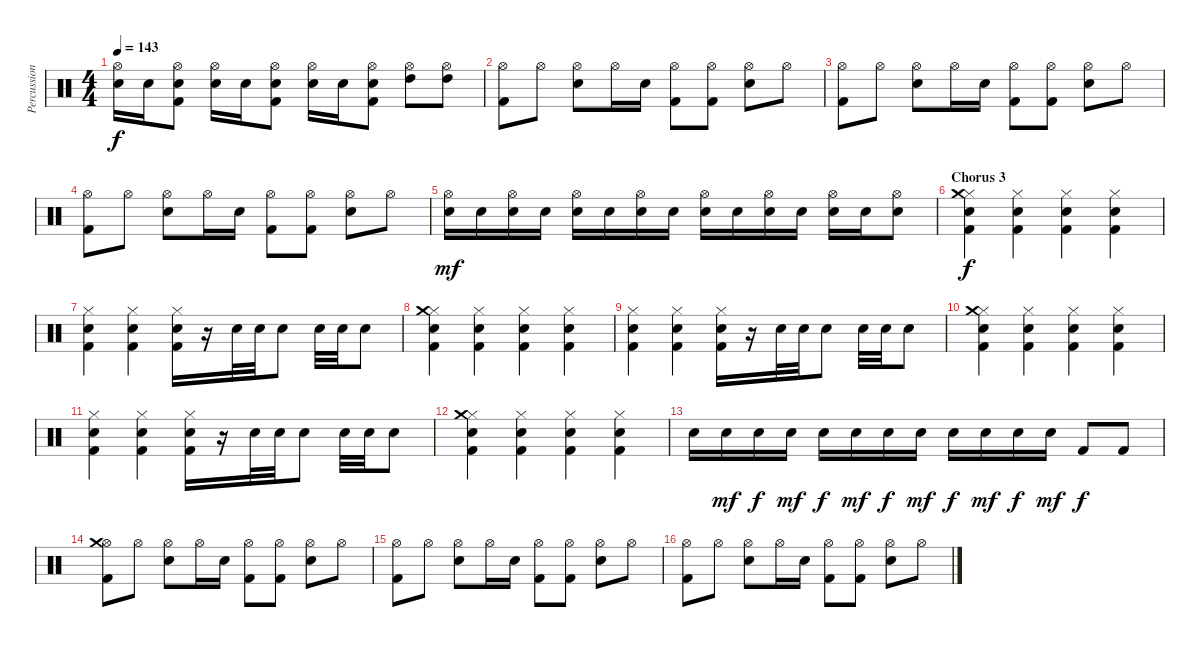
\track ("Percussion" "Percussion") {instrument percussion}
\staff {score}
\articulation defaults
\ts (4 4)
\tempo 143
\clef neutral
\ks c
("Hi-Hat (open)" "Electric Snare (hit)").16{dy f} "Electric Snare (hit)".16 ("Hi-Hat (open)" "Electric Snare (hit)" "Kick (hit) 2").8 ("Hi-Hat (open)" "Electric Snare (hit)").16 "Electric Snare (hit)".16 ("Hi-Hat (open)" "Electric Snare (hit)" "Kick (hit) 2").8 ("Hi-Hat (open)" "Electric Snare (hit)").16 "Electric Snare (hit)".16 ("Hi-Hat (open)" "Electric Snare (hit)" "Kick (hit) 2").8 ("Hi-Hat (open)" "High Tom (hit)").8 ("Hi-Hat (open)" "High Tom (hit)").8 |
("Hi-Hat (open)" "Kick (hit) 2").8 "Hi-Hat (open)".8 ("Hi-Hat (open)" "Electric Snare (hit)").8 "Hi-Hat (open)".16 "Electric Snare (hit)".16 ("Hi-Hat (open)" "Kick (hit) 2").8 ("Hi-Hat (open)" "Kick (hit) 2").8 ("Hi-Hat (open)" "Electric Snare (hit)").8 "Hi-Hat (open)".8 |
("Hi-Hat (open)" "Kick (hit) 2").8 "Hi-Hat (open)".8 ("Hi-Hat (open)" "Electric Snare (hit)").8 "Hi-Hat (open)".16 "Electric Snare (hit)".16 ("Hi-Hat (open)" "Kick (hit) 2").8 ("Hi-Hat (open)" "Kick (hit) 2").8 ("Hi-Hat (open)" "Electric Snare (hit)").8 "Hi-Hat (open)".8 |
("Hi-Hat (open)" "Kick (hit) 2").8 "Hi-Hat (open)".8 ("Hi-Hat (open)" "Electric Snare (hit)").8 "Hi-Hat (open)".16 "Electric Snare (hit)".16 ("Hi-Hat (open)" "Kick (hit) 2").8 ("Hi-Hat (open)" "Kick (hit) 2").8 ("Hi-Hat (open)" "Electric Snare (hit)").8 "Hi-Hat (open)".8 |
("Hi-Hat (open)" "Electric Snare (hit)").16{dy mf} "Electric Snare (hit)".16 ("Hi-Hat (open)" "Electric Snare (hit)").16 "Electric Snare (hit)".16 ("Hi-Hat (open)" "Electric Snare (hit)").16 "Electric Snare (hit)".16 ("Hi-Hat (open)" "Electric Snare (hit)").16 "Electric Snare (hit)".16 ("Hi-Hat (open)" "Electric Snare (hit)").16 "Electric Snare (hit)".16 ("Hi-Hat (open)" "Electric Snare (hit)").16 "Electric Snare (hit)".16 ("Hi-Hat (open)" "Electric Snare (hit)").16 "Electric Snare (hit)".16 ("Hi-Hat (open)" "Electric Snare (hit)").8 |
\section ("" "Chorus 3")
("Hi-Hat (closed)" "Crash medium (hit)" "Electric Snare (hit)" "Kick (hit) 2").4{dy f} ("Hi-Hat (closed)" "Electric Snare (hit)" "Kick (hit) 2").4 ("Hi-Hat (closed)" "Electric Snare (hit)" "Kick (hit) 2").4 ("Hi-Hat (closed)" "Electric Snare (hit)" "Kick (hit) 2").4 |
("Hi-Hat (closed)" "Electric Snare (hit)" "Kick (hit) 2").4 ("Hi-Hat (closed)" "Electric Snare (hit)" "Kick (hit) 2").4 ("Hi-Hat (closed)" "Electric Snare (hit)" "Kick (hit) 2").16 r.16 "Electric Snare (hit)".32 "Electric Snare (hit)".32 "Electric Snare (hit)".8 "Electric Snare (hit)".32 "Electric Snare (hit)".32 "Electric Snare (hit)".8 |
("Hi-Hat (closed)" "Crash medium (hit)" "Electric Snare (hit)" "Kick (hit) 2").4 ("Hi-Hat (closed)" "Electric Snare (hit)" "Kick (hit) 2").4 ("Hi-Hat (closed)" "Electric Snare (hit)" "Kick (hit) 2").4 ("Hi-Hat (closed)" "Electric Snare (hit)" "Kick (hit) 2").4 |
("Hi-Hat (closed)" "Electric Snare (hit)" "Kick (hit) 2").4 ("Hi-Hat (closed)" "Electric Snare (hit)" "Kick (hit) 2").4 ("Hi-Hat (closed)" "Electric Snare (hit)" "Kick (hit) 2").16 r.16 "Electric Snare (hit)".32 "Electric Snare (hit)".32 "Electric Snare (hit)".8 "Electric Snare (hit)".32 "Electric Snare (hit)".32 "Electric Snare (hit)".8 |
("Hi-Hat (closed)" "Crash medium (hit)" "Electric Snare (hit)" "Kick (hit) 2").4 ("Hi-Hat (closed)" "Electric Snare (hit)" "Kick (hit) 2").4 ("Hi-Hat (closed)" "Electric Snare (hit)" "Kick (hit) 2").4 ("Hi-Hat (closed)" "Electric Snare (hit)" "Kick (hit) 2").4 |
("Hi-Hat (closed)" "Electric Snare (hit)" "Kick (hit) 2").4 ("Hi-Hat (closed)" "Electric Snare (hit)" "Kick (hit) 2").4 ("Hi-Hat (closed)" "Electric Snare (hit)" "Kick (hit) 2").16 r.16 "Electric Snare (hit)".32 "Electric Snare (hit)".32 "Electric Snare (hit)".8 "Electric Snare (hit)".32 "Electric Snare (hit)".32 "Electric Snare (hit)".8 |
("Hi-Hat (closed)" "Crash medium (hit)" "Electric Snare (hit)" "Kick (hit) 2").4 ("Hi-Hat (closed)" "Electric Snare (hit)" "Kick (hit) 2").4 ("Hi-Hat (closed)" "Electric Snare (hit)" "Kick (hit) 2").4 ("Hi-Hat (closed)" "Electric Snare (hit)" "Kick (hit) 2").4 |
"Electric Snare (hit)".16 "Electric Snare (hit)".16{dy mf} "Electric Snare (hit)".16{dy f} "Electric Snare (hit)".16{dy mf} "Electric Snare (hit)".16{dy f} "Electric Snare (hit)".16{dy mf} "Electric Snare (hit)".16{dy f} "Electric Snare (hit)".16{dy mf} "Electric Snare (hit)".16{dy f} "Electric Snare (hit)".16{dy mf} "Electric Snare (hit)".16{dy f} "Electric Snare (hit)".16{dy mf} "Kick (hit) 2".8{dy f} "Kick (hit) 2".8 |
("Hi-Hat (open)" "Crash medium (hit)" "Kick (hit) 2").8 "Hi-Hat (open)".8 ("Hi-Hat (open)" "Electric Snare (hit)").8 "Hi-Hat (open)".16 "Electric Snare (hit)".16 ("Hi-Hat (open)" "Kick (hit) 2").8 ("Hi-Hat (open)" "Kick (hit) 2").8 ("Hi-Hat (open)" "Electric Snare (hit)").8 "Hi-Hat (open)".8 |
("Hi-Hat (open)" "Kick (hit) 2").8 "Hi-Hat (open)".8 ("Hi-Hat (open)" "Electric Snare (hit)").8 "Hi-Hat (open)".16 "Electric Snare (hit)".16 ("Hi-Hat (open)" "Kick (hit) 2").8 ("Hi-Hat (open)" "Kick (hit) 2").8 ("Hi-Hat (open)" "Electric Snare (hit)").8 "Hi-Hat (open)".8 |
("Hi-Hat (open)" "Kick (hit) 2").8 "Hi-Hat (open)".8 ("Hi-Hat (open)" "Electric Snare (hit)").8 "Hi-Hat (open)".16 "Electric Snare (hit)".16 ("Hi-Hat (open)" "Kick (hit) 2").8 ("Hi-Hat (open)" "Kick (hit) 2").8 ("Hi-Hat (open)" "Electric Snare (hit)").8 "Hi-Hat (open)".8
